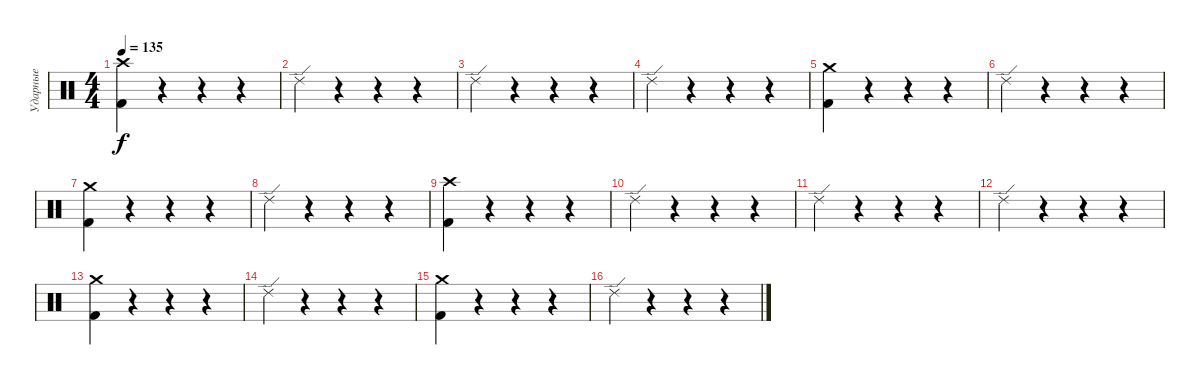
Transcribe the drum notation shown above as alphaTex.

\track ("Ударные" "Ударные") {instrument percussion}
\staff {score}
\articulation defaults
\ts (4 4)
\tempo 135
\clef neutral
\ks c
("Crash high (hit)" "Kick (hit) 2").4{dy f} r.4 r.4 r.4 |
"Ride (edge) 2".4 r.4 r.4 r.4 |
"Ride (edge) 2".4 r.4 r.4 r.4 |
"Ride (edge) 2".4 r.4 r.4 r.4 |
("Crash medium (hit)" "Kick (hit) 2").4 r.4 r.4 r.4 |
"Ride (edge) 2".4 r.4 r.4 r.4 |
("Crash medium (hit)" "Kick (hit) 2").4 r.4 r.4 r.4 |
"Ride (edge) 2".4 r.4 r.4 r.4 |
("Crash high (hit)" "Kick (hit) 2").4 r.4 r.4 r.4 |
"Ride (edge) 2".4 r.4 r.4 r.4 |
"Ride (edge) 2".4 r.4 r.4 r.4 |
"Ride (edge) 2".4 r.4 r.4 r.4 |
("Crash medium (hit)" "Kick (hit) 2").4 r.4 r.4 r.4 |
"Ride (edge) 2".4 r.4 r.4 r.4 |
("Crash medium (hit)" "Kick (hit) 2").4 r.4 r.4 r.4 |
"Ride (edge) 2".4 r.4 r.4 r.4
